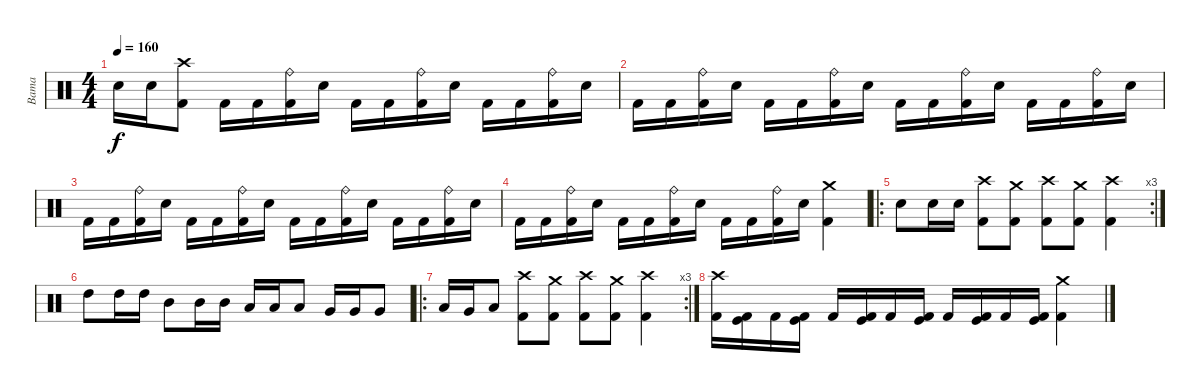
\track ("Bama" "Bama") {instrument percussion}
\staff {score}
\articulation defaults
\ts (4 4)
\tempo 160
\clef neutral
\ks c "Electric Snare (hit)".16{dy f} "Electric Snare (hit)".16
("Crash high (hit)" "Kick (hit) 2").8 "Kick (hit) 2".16 "Kick (hit) 2".16 ("Ride (bell)" "Kick (hit) 2").16 "Electric Snare (hit)".16 "Kick (hit) 2".16 "Kick (hit) 2".16 ("Ride (bell)" "Kick (hit) 2").16 "Electric Snare (hit)".16 "Kick (hit) 2".16 "Kick (hit) 2".16 ("Ride (bell)" "Kick (hit) 2").16 "Electric Snare (hit)".16 |
"Kick (hit) 2".16 "Kick (hit) 2".16 ("Ride (bell)" "Kick (hit) 2").16 "Electric Snare (hit)".16 "Kick (hit) 2".16 "Kick (hit) 2".16 ("Ride (bell)" "Kick (hit) 2").16 "Electric Snare (hit)".16 "Kick (hit) 2".16 "Kick (hit) 2".16 ("Ride (bell)" "Kick (hit) 2").16 "Electric Snare (hit)".16 "Kick (hit) 2".16 "Kick (hit) 2".16 ("Ride (bell)" "Kick (hit) 2").16 "Electric Snare (hit)".16 |
"Kick (hit) 2".16 "Kick (hit) 2".16 ("Ride (bell)" "Kick (hit) 2").16 "Electric Snare (hit)".16 "Kick (hit) 2".16 "Kick (hit) 2".16 ("Ride (bell)" "Kick (hit) 2").16 "Electric Snare (hit)".16 "Kick (hit) 2".16 "Kick (hit) 2".16 ("Ride (bell)" "Kick (hit) 2").16 "Electric Snare (hit)".16 "Kick (hit) 2".16 "Kick (hit) 2".16 ("Ride (bell)" "Kick (hit) 2").16 "Electric Snare (hit)".16 |
"Kick (hit) 2".16 "Kick (hit) 2".16 ("Ride (bell)" "Kick (hit) 2").16 "Electric Snare (hit)".16 "Kick (hit) 2".16 "Kick (hit) 2".16 ("Ride (bell)" "Kick (hit) 2").16 "Electric Snare (hit)".16 "Kick (hit) 2".16 "Kick (hit) 2".16 ("Ride (bell)" "Kick (hit) 2").16 "Electric Snare (hit)".16 ("Crash medium (hit)" "Kick (hit) 2").4 |
\ro
\rc 3 "Electric Snare (hit)".8 "Electric Snare (hit)".16 "Electric Snare (hit)".16
("Crash high (hit)" "Kick (hit) 2").8 ("Crash medium (hit)" "Kick (hit) 2").8 ("Crash high (hit)" "Kick (hit) 2").8 ("Crash medium (hit)" "Kick (hit) 2").8 ("Crash high (hit)" "Kick (hit) 2").4 |
"High Tom (hit)".8 "High Tom (hit)".16 "High Tom (hit)".16 "Mid Tom (hit)".8 "Mid Tom (hit)".16 "Mid Tom (hit)".16 "Low Tom (hit)".16 "Low Tom (hit)".16 "Low Tom (hit)".8 "Very Low Tom (hit)".16 "Very Low Tom (hit)".16 "Very Low Tom (hit)".8 |
\ro
\rc 3 "Low Tom (hit)".16 "Very Low Tom (hit)".16 "Low Floor Tom (hit)".8
("Crash high (hit)" "Kick (hit) 2").8 ("Crash medium (hit)" "Kick (hit) 2").8 ("Crash high (hit)" "Kick (hit) 2").8 ("Crash medium (hit)" "Kick (hit) 2").8 ("Crash high (hit)" "Kick (hit) 2").4 |
("Crash high (hit)" "Kick (hit) 2").16 ("Kick (hit)" "Kick (hit) 2").16 "Kick (hit) 2".16 ("Kick (hit)" "Kick (hit) 2").16 "Kick (hit) 2".16 ("Kick (hit)" "Kick (hit) 2").16 "Kick (hit) 2".16 ("Kick (hit)" "Kick (hit) 2").16 "Kick (hit) 2".16 ("Kick (hit)" "Kick (hit) 2").16 "Kick (hit) 2".16 ("Kick (hit)" "Kick (hit) 2").16 ("Crash medium (hit)" "Kick (hit) 2").4
